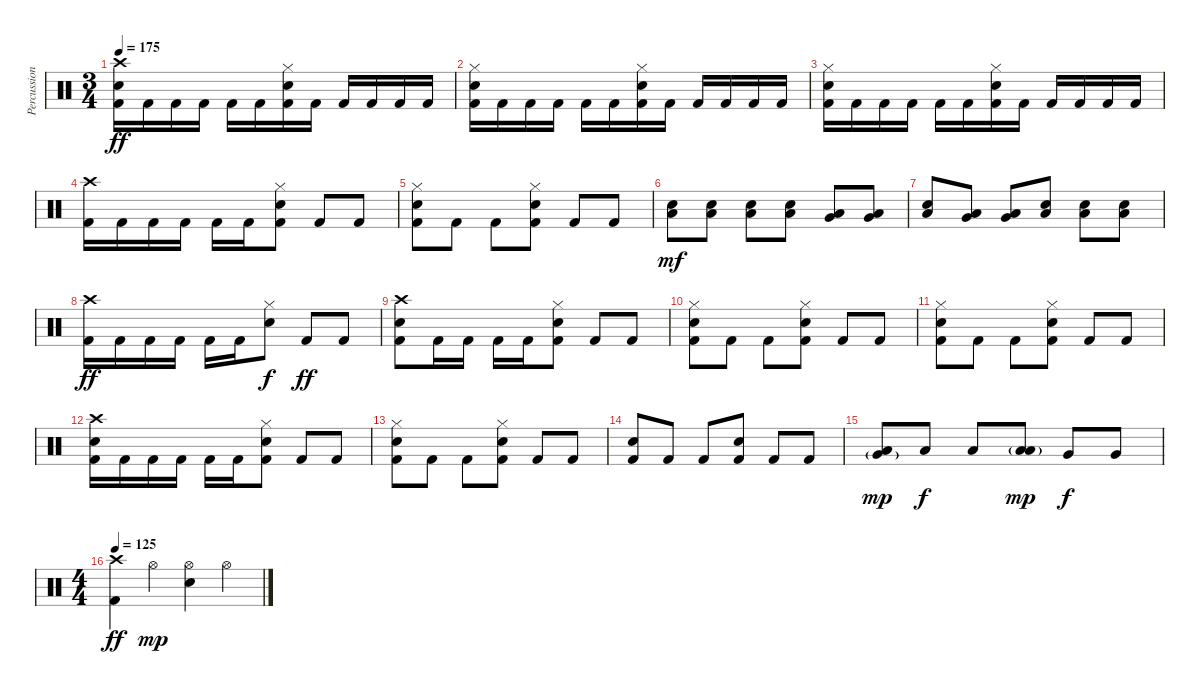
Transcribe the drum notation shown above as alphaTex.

\track ("Percussion" "Percussion") {instrument percussion}
\staff {score}
\articulation defaults
\ts (3 4)
\tempo 175
\clef neutral
\ks c
("Crash high (hit)" "Snare (hit) 2" "Kick (hit) 2").16{dy ff} "Kick (hit) 2".16 "Kick (hit) 2".16 "Kick (hit) 2".16 "Kick (hit) 2".16 "Kick (hit) 2".16 ("Hi-Hat (closed)" "Snare (hit) 2" "Kick (hit) 2").16 "Kick (hit) 2".16 "Kick (hit) 2".16 "Kick (hit) 2".16 "Kick (hit) 2".16 "Kick (hit) 2".16 |
("Hi-Hat (closed)" "Snare (hit) 2" "Kick (hit) 2").16 "Kick (hit) 2".16 "Kick (hit) 2".16 "Kick (hit) 2".16 "Kick (hit) 2".16 "Kick (hit) 2".16 ("Hi-Hat (closed)" "Snare (hit) 2" "Kick (hit) 2").16 "Kick (hit) 2".16 "Kick (hit) 2".16 "Kick (hit) 2".16 "Kick (hit) 2".16 "Kick (hit) 2".16 |
("Hi-Hat (closed)" "Snare (hit) 2" "Kick (hit) 2").16 "Kick (hit) 2".16 "Kick (hit) 2".16 "Kick (hit) 2".16 "Kick (hit) 2".16 "Kick (hit) 2".16 ("Hi-Hat (closed)" "Snare (hit) 2" "Kick (hit) 2").16 "Kick (hit) 2".16 "Kick (hit) 2".16 "Kick (hit) 2".16 "Kick (hit) 2".16 "Kick (hit) 2".16 |
("Crash high (hit)" "Kick (hit) 2").16 "Kick (hit) 2".16 "Kick (hit) 2".16 "Kick (hit) 2".16 "Kick (hit) 2".16 "Kick (hit) 2".16 ("Hi-Hat (closed)" "Snare (hit) 2" "Kick (hit) 2").8 "Kick (hit) 2".8 "Kick (hit) 2".8 |
("Hi-Hat (closed)" "Snare (hit) 2" "Kick (hit) 2").8 "Kick (hit) 2".8 "Kick (hit) 2".8 ("Hi-Hat (closed)" "Snare (hit) 2" "Kick (hit) 2").8 "Kick (hit) 2".8 "Kick (hit) 2".8 |
("Low Floor Tom (hit)" "Snare (hit) 2").8{dy mf} ("Low Floor Tom (hit)" "Snare (hit) 2").8 ("Low Floor Tom (hit)" "Snare (hit) 2").8 ("Low Floor Tom (hit)" "Snare (hit) 2").8 ("Very Low Tom (hit)" "Low Floor Tom (hit)").8 ("Very Low Tom (hit)" "Low Floor Tom (hit)").8 |
("Low Floor Tom (hit)" "Snare (hit) 2").8 ("Very Low Tom (hit)" "Low Floor Tom (hit)").8 ("Very Low Tom (hit)" "Low Floor Tom (hit)").8 ("Low Floor Tom (hit)" "Snare (hit) 2").8 ("Low Floor Tom (hit)" "Snare (hit) 2").8 ("Low Floor Tom (hit)" "Snare (hit) 2").8 |
("Crash high (hit)" "Kick (hit) 2").16{dy ff} "Kick (hit) 2".16 "Kick (hit) 2".16 "Kick (hit) 2".16 "Kick (hit) 2".16 "Kick (hit) 2".16 ("Hi-Hat (closed)" "Snare (hit) 2").8{dy f} "Kick (hit) 2".8{dy ff} "Kick (hit) 2".8 |
("Crash high (hit)" "Snare (hit) 2" "Kick (hit) 2").8 "Kick (hit) 2".16 "Kick (hit) 2".16 "Kick (hit) 2".16 "Kick (hit) 2".16 ("Hi-Hat (closed)" "Snare (hit) 2" "Kick (hit) 2").8 "Kick (hit) 2".8 "Kick (hit) 2".8 |
("Hi-Hat (closed)" "Snare (hit) 2" "Kick (hit) 2").8 "Kick (hit) 2".8 "Kick (hit) 2".8 ("Hi-Hat (closed)" "Snare (hit) 2" "Kick (hit) 2").8 "Kick (hit) 2".8 "Kick (hit) 2".8 |
("Hi-Hat (closed)" "Snare (hit) 2" "Kick (hit) 2").8 "Kick (hit) 2".8 "Kick (hit) 2".8 ("Hi-Hat (closed)" "Snare (hit) 2" "Kick (hit) 2").8 "Kick (hit) 2".8 "Kick (hit) 2".8 |
("Crash high (hit)" "Snare (hit) 2" "Kick (hit) 2").16 "Kick (hit) 2".16 "Kick (hit) 2".16 "Kick (hit) 2".16 "Kick (hit) 2".16 "Kick (hit) 2".16 ("Hi-Hat (closed)" "Snare (hit) 2" "Kick (hit) 2").8 "Kick (hit) 2".8 "Kick (hit) 2".8 |
("Hi-Hat (closed)" "Snare (hit) 2" "Kick (hit) 2").8 "Kick (hit) 2".8 "Kick (hit) 2".8 ("Hi-Hat (closed)" "Snare (hit) 2" "Kick (hit) 2").8 "Kick (hit) 2".8 "Kick (hit) 2".8 |
("Snare (hit) 2" "Kick (hit) 2").8 "Kick (hit) 2".8 "Kick (hit) 2".8 ("Snare (hit) 2" "Kick (hit) 2").8 "Kick (hit) 2".8 "Kick (hit) 2".8 |
("Very Low Tom (hit)"{g} "Low Tom (hit)").8{dy mp} "Low Tom (hit)".8{dy f} "Low Tom (hit)".8 ("Low Floor Tom (hit)"{g} "Low Tom (hit)").8{dy mp} "Very Low Tom (hit)".8{dy f} "Very Low Tom (hit)".8 |
\ts (4 4)
\tempo 125
("Crash high (hit)" "Kick (hit) 2").4{dy ff} "Hi-Hat (open)".4{dy mp} ("Hi-Hat (open)" "Snare (hit) 2").4 "Hi-Hat (open)".4
